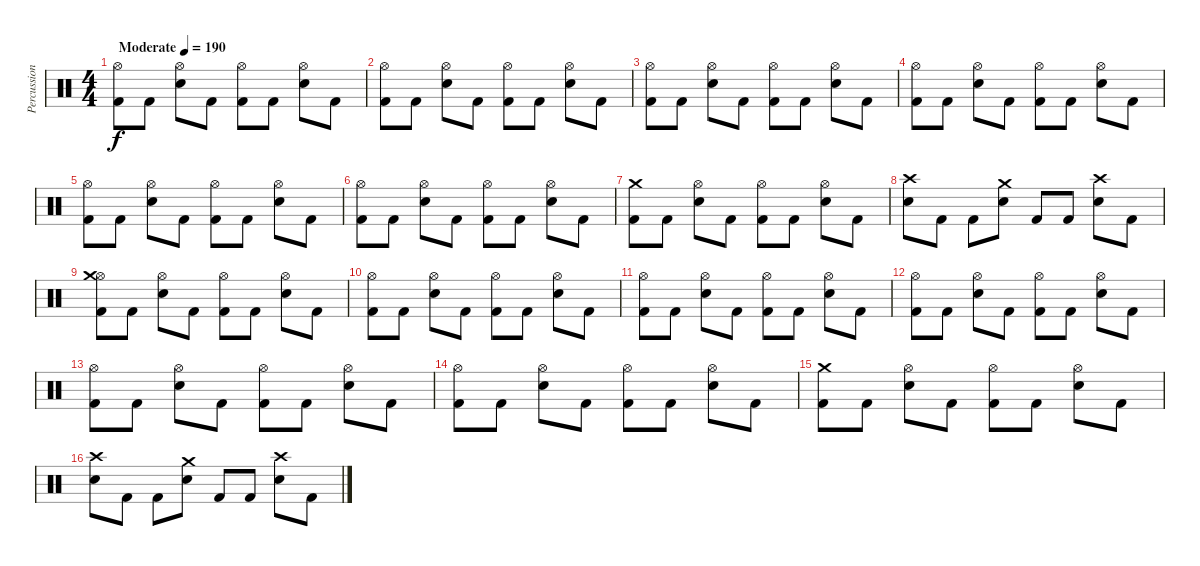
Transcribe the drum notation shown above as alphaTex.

\track ("Percussion" "Percussion") {instrument percussion}
\staff {score}
\articulation defaults
\ts (4 4)
\tempo (190 "Moderate")
\clef neutral
\ks c
("Kick (hit) 2" "Hi-Hat (open)").8{dy f} "Kick (hit) 2".8 ("Snare (hit) 2" "Hi-Hat (open)").8 "Kick (hit) 2".8 ("Kick (hit) 2" "Hi-Hat (open)").8 "Kick (hit) 2".8 ("Snare (hit) 2" "Hi-Hat (open)").8 "Kick (hit) 2".8 |
("Kick (hit) 2" "Hi-Hat (open)").8 "Kick (hit) 2".8 ("Snare (hit) 2" "Hi-Hat (open)").8 "Kick (hit) 2".8 ("Kick (hit) 2" "Hi-Hat (open)").8 "Kick (hit) 2".8 ("Snare (hit) 2" "Hi-Hat (open)").8 "Kick (hit) 2".8 |
("Kick (hit) 2" "Hi-Hat (open)").8 "Kick (hit) 2".8 ("Snare (hit) 2" "Hi-Hat (open)").8 "Kick (hit) 2".8 ("Kick (hit) 2" "Hi-Hat (open)").8 "Kick (hit) 2".8 ("Snare (hit) 2" "Hi-Hat (open)").8 "Kick (hit) 2".8 |
("Kick (hit) 2" "Hi-Hat (open)").8 "Kick (hit) 2".8 ("Snare (hit) 2" "Hi-Hat (open)").8 "Kick (hit) 2".8 ("Kick (hit) 2" "Hi-Hat (open)").8 "Kick (hit) 2".8 ("Snare (hit) 2" "Hi-Hat (open)").8 "Kick (hit) 2".8 |
("Kick (hit) 2" "Hi-Hat (open)").8 "Kick (hit) 2".8 ("Snare (hit) 2" "Hi-Hat (open)").8 "Kick (hit) 2".8 ("Kick (hit) 2" "Hi-Hat (open)").8 "Kick (hit) 2".8 ("Snare (hit) 2" "Hi-Hat (open)").8 "Kick (hit) 2".8 |
("Kick (hit) 2" "Hi-Hat (open)").8 "Kick (hit) 2".8 ("Snare (hit) 2" "Hi-Hat (open)").8 "Kick (hit) 2".8 ("Kick (hit) 2" "Hi-Hat (open)").8 "Kick (hit) 2".8 ("Snare (hit) 2" "Hi-Hat (open)").8 "Kick (hit) 2".8 |
("Kick (hit) 2" "Crash medium (hit)").8 "Kick (hit) 2".8 ("Snare (hit) 2" "Hi-Hat (open)").8 "Kick (hit) 2".8 ("Kick (hit) 2" "Hi-Hat (open)").8 "Kick (hit) 2".8 ("Snare (hit) 2" "Hi-Hat (open)").8 "Kick (hit) 2".8 |
("Snare (hit) 2" "Crash high (hit)").8 "Kick (hit) 2".8 "Kick (hit) 2".8 ("Snare (hit) 2" "Crash medium (hit)").8 "Kick (hit) 2".8 "Kick (hit) 2".8 ("Snare (hit) 2" "Crash high (hit)").8 "Kick (hit) 2".8 |
("Kick (hit) 2" "Hi-Hat (open)" "Crash medium (hit)").8 "Kick (hit) 2".8 ("Snare (hit) 2" "Hi-Hat (open)").8 "Kick (hit) 2".8 ("Kick (hit) 2" "Hi-Hat (open)").8 "Kick (hit) 2".8 ("Snare (hit) 2" "Hi-Hat (open)").8 "Kick (hit) 2".8 |
("Kick (hit) 2" "Hi-Hat (open)").8 "Kick (hit) 2".8 ("Snare (hit) 2" "Hi-Hat (open)").8 "Kick (hit) 2".8 ("Kick (hit) 2" "Hi-Hat (open)").8 "Kick (hit) 2".8 ("Snare (hit) 2" "Hi-Hat (open)").8 "Kick (hit) 2".8 |
("Kick (hit) 2" "Hi-Hat (open)").8 "Kick (hit) 2".8 ("Snare (hit) 2" "Hi-Hat (open)").8 "Kick (hit) 2".8 ("Kick (hit) 2" "Hi-Hat (open)").8 "Kick (hit) 2".8 ("Snare (hit) 2" "Hi-Hat (open)").8 "Kick (hit) 2".8 |
("Kick (hit) 2" "Hi-Hat (open)").8 "Kick (hit) 2".8 ("Snare (hit) 2" "Hi-Hat (open)").8 "Kick (hit) 2".8 ("Kick (hit) 2" "Hi-Hat (open)").8 "Kick (hit) 2".8 ("Snare (hit) 2" "Hi-Hat (open)").8 "Kick (hit) 2".8 |
("Kick (hit) 2" "Hi-Hat (open)").8 "Kick (hit) 2".8 ("Snare (hit) 2" "Hi-Hat (open)").8 "Kick (hit) 2".8 ("Kick (hit) 2" "Hi-Hat (open)").8 "Kick (hit) 2".8 ("Snare (hit) 2" "Hi-Hat (open)").8 "Kick (hit) 2".8 |
("Kick (hit) 2" "Hi-Hat (open)").8 "Kick (hit) 2".8 ("Snare (hit) 2" "Hi-Hat (open)").8 "Kick (hit) 2".8 ("Kick (hit) 2" "Hi-Hat (open)").8 "Kick (hit) 2".8 ("Snare (hit) 2" "Hi-Hat (open)").8 "Kick (hit) 2".8 |
("Kick (hit) 2" "Crash medium (hit)").8 "Kick (hit) 2".8 ("Snare (hit) 2" "Hi-Hat (open)").8 "Kick (hit) 2".8 ("Kick (hit) 2" "Hi-Hat (open)").8 "Kick (hit) 2".8 ("Snare (hit) 2" "Hi-Hat (open)").8 "Kick (hit) 2".8 |
("Snare (hit) 2" "Crash high (hit)").8 "Kick (hit) 2".8 "Kick (hit) 2".8 ("Snare (hit) 2" "Crash medium (hit)").8 "Kick (hit) 2".8 "Kick (hit) 2".8 ("Snare (hit) 2" "Crash high (hit)").8 "Kick (hit) 2".8
